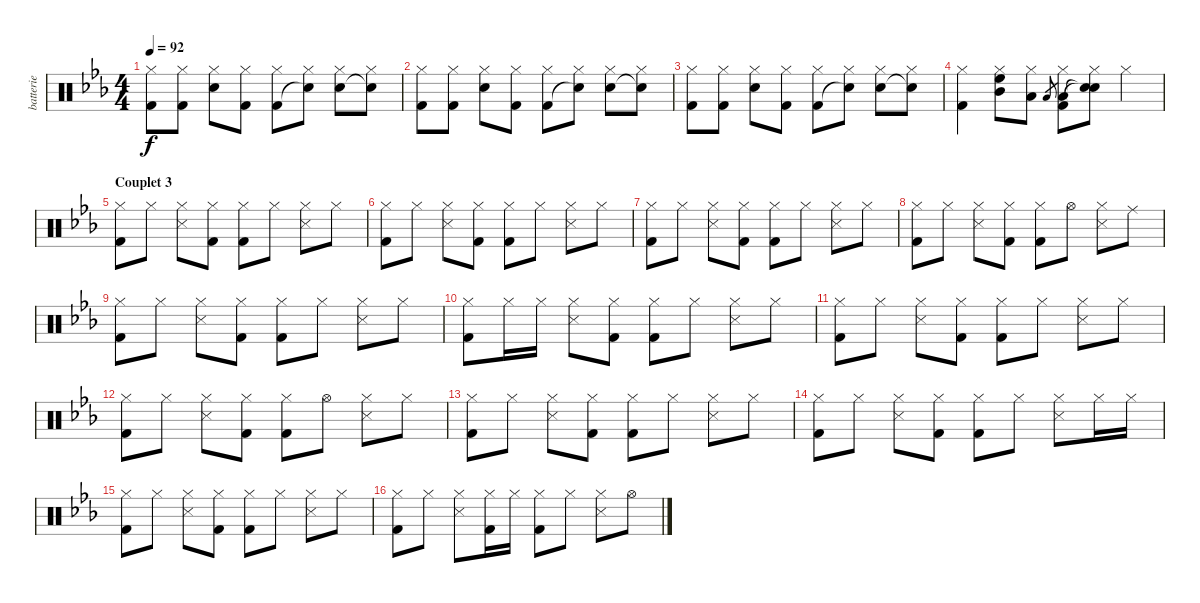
\track ("batterie" "batterie") {instrument percussion}
\staff {score}
\articulation defaults
\ts (4 4)
\tempo 92
\clef neutral
\ks eb
("Kick (hit) 2" "Hi-Hat (closed)").8{dy f} ("Kick (hit) 2" "Hi-Hat (closed)").8 ("Snare (hit) 2" "Hi-Hat (closed)").8 ("Kick (hit) 2" "Hi-Hat (closed)").8 ("Kick (hit) 2" "Hi-Hat (closed)").8 ("Snare (hit)"{t} "Hi-Hat (closed)").8 ("Snare (hit) 2" "Hi-Hat (closed)").8 ("Snare (hit)"{t} "Hi-Hat (closed)").8 |
("Kick (hit) 2" "Hi-Hat (closed)").8 ("Kick (hit) 2" "Hi-Hat (closed)").8 ("Snare (hit) 2" "Hi-Hat (closed)").8 ("Kick (hit) 2" "Hi-Hat (closed)").8 ("Kick (hit) 2" "Hi-Hat (closed)").8 ("Snare (hit)"{t} "Hi-Hat (closed)").8 ("Snare (hit) 2" "Hi-Hat (closed)").8 ("Snare (hit)"{t} "Hi-Hat (closed)").8 |
("Kick (hit) 2" "Hi-Hat (closed)").8 ("Kick (hit) 2" "Hi-Hat (closed)").8 ("Snare (hit) 2" "Hi-Hat (closed)").8 ("Kick (hit) 2" "Hi-Hat (closed)").8 ("Kick (hit) 2" "Hi-Hat (closed)").8 ("Snare (hit)"{t} "Hi-Hat (closed)").8 ("Snare (hit) 2" "Hi-Hat (closed)").8 ("Snare (hit)"{t} "Hi-Hat (closed)").8 |
("Kick (hit) 2" "Hi-Hat (closed)").4 ("High Floor Tom (hit)" "Hi-Hat (closed)" "Mid Tom (hit)").8 ("Hi-Hat (closed)" "Low Tom (hit)").8 "Low Floor Tom (hit)".8{gr} ("Hi-Hat (closed)" "Low Floor Tom (hit)" "Kick (hit) 2").8 ("Hi-Hat (closed)" "Snare (hit)"{t} "Snare (hit)"{t}).8 "Hi-Hat (closed)".4 |
\section ("" "Couplet 3")
("Kick (hit) 2" "Hi-Hat (closed)").8 "Hi-Hat (closed)".8 ("Snare (side stick) 3" "Hi-Hat (closed)").8 ("Kick (hit) 2" "Hi-Hat (closed)").8 ("Kick (hit) 2" "Hi-Hat (closed)").8 "Hi-Hat (closed)".8 ("Snare (side stick) 3" "Hi-Hat (closed)").8 "Hi-Hat (closed)".8 |
("Kick (hit) 2" "Hi-Hat (closed)").8 "Hi-Hat (closed)".8 ("Snare (side stick) 3" "Hi-Hat (closed)").8 ("Kick (hit) 2" "Hi-Hat (closed)").8 ("Kick (hit) 2" "Hi-Hat (closed)").8 "Hi-Hat (closed)".8 ("Snare (side stick) 3" "Hi-Hat (closed)").8 "Hi-Hat (closed)".8 |
("Kick (hit) 2" "Hi-Hat (closed)").8 "Hi-Hat (closed)".8 ("Snare (side stick) 3" "Hi-Hat (closed)").8 ("Kick (hit) 2" "Hi-Hat (closed)").8 ("Kick (hit) 2" "Hi-Hat (closed)").8 "Hi-Hat (closed)".8 ("Snare (side stick) 3" "Hi-Hat (closed)").8 "Hi-Hat (closed)".8 |
("Kick (hit) 2" "Hi-Hat (closed)").8 "Hi-Hat (closed)".8 ("Snare (side stick) 3" "Hi-Hat (closed)").8 ("Kick (hit) 2" "Hi-Hat (closed)").8 ("Kick (hit) 2" "Hi-Hat (closed)").8 "Hi-Hat (open)".8 ("Snare (side stick) 3" "Hi-Hat (closed)").8 "Ride (middle)".8 |
("Kick (hit) 2" "Hi-Hat (closed)").8 "Hi-Hat (closed)".8 ("Snare (side stick) 3" "Hi-Hat (closed)").8 ("Kick (hit) 2" "Hi-Hat (closed)").8 ("Kick (hit) 2" "Hi-Hat (closed)").8 "Hi-Hat (closed)".8 ("Snare (side stick) 3" "Hi-Hat (closed)").8 "Hi-Hat (closed)".8 |
("Hi-Hat (closed)" "Kick (hit) 2").8 "Hi-Hat (closed)".16 "Hi-Hat (closed)".16 ("Hi-Hat (closed)" "Snare (side stick) 3").8 ("Hi-Hat (closed)" "Kick (hit) 2").8 ("Hi-Hat (closed)" "Kick (hit) 2").8 "Hi-Hat (closed)".8 ("Hi-Hat (closed)" "Snare (side stick) 3").8 "Hi-Hat (closed)".8 |
("Kick (hit) 2" "Hi-Hat (closed)").8 "Hi-Hat (closed)".8 ("Snare (side stick) 3" "Hi-Hat (closed)").8 ("Kick (hit) 2" "Hi-Hat (closed)").8 ("Kick (hit) 2" "Hi-Hat (closed)").8 "Hi-Hat (closed)".8 ("Snare (side stick) 3" "Hi-Hat (closed)").8 "Hi-Hat (closed)".8 |
("Kick (hit) 2" "Hi-Hat (closed)").8 "Hi-Hat (closed)".8 ("Snare (side stick) 3" "Hi-Hat (closed)").8 ("Kick (hit) 2" "Hi-Hat (closed)").8 ("Kick (hit) 2" "Hi-Hat (closed)").8 "Hi-Hat (open)".8 ("Snare (side stick) 3" "Hi-Hat (closed)").8 "Hi-Hat (closed)".8 |
("Kick (hit) 2" "Hi-Hat (closed)").8 "Hi-Hat (closed)".8 ("Snare (side stick) 3" "Hi-Hat (closed)").8 ("Kick (hit) 2" "Hi-Hat (closed)").8 ("Kick (hit) 2" "Hi-Hat (closed)").8 "Hi-Hat (closed)".8 ("Snare (side stick) 3" "Hi-Hat (closed)").8 "Hi-Hat (closed)".8 |
("Kick (hit) 2" "Hi-Hat (closed)").8 "Hi-Hat (closed)".8 ("Snare (side stick) 3" "Hi-Hat (closed)").8 ("Kick (hit) 2" "Hi-Hat (closed)").8 ("Kick (hit) 2" "Hi-Hat (closed)").8 "Hi-Hat (closed)".8 ("Snare (side stick) 3" "Hi-Hat (closed)").8 "Hi-Hat (closed)".16 "Hi-Hat (closed)".16 |
("Kick (hit) 2" "Hi-Hat (closed)").8 "Hi-Hat (closed)".8 ("Snare (side stick) 3" "Hi-Hat (closed)").8 ("Kick (hit) 2" "Hi-Hat (closed)").8 ("Kick (hit) 2" "Hi-Hat (closed)").8 "Hi-Hat (closed)".8 ("Snare (side stick) 3" "Hi-Hat (closed)").8 "Hi-Hat (closed)".8 |
("Kick (hit) 2" "Hi-Hat (closed)").8 "Hi-Hat (closed)".8 ("Snare (side stick) 3" "Hi-Hat (closed)").8 ("Kick (hit) 2" "Hi-Hat (closed)").16 "Hi-Hat (closed)".16 ("Kick (hit) 2" "Hi-Hat (closed)").8 "Hi-Hat (closed)".8 ("Snare (side stick) 3" "Hi-Hat (closed)").8 "Hi-Hat (open)".8
